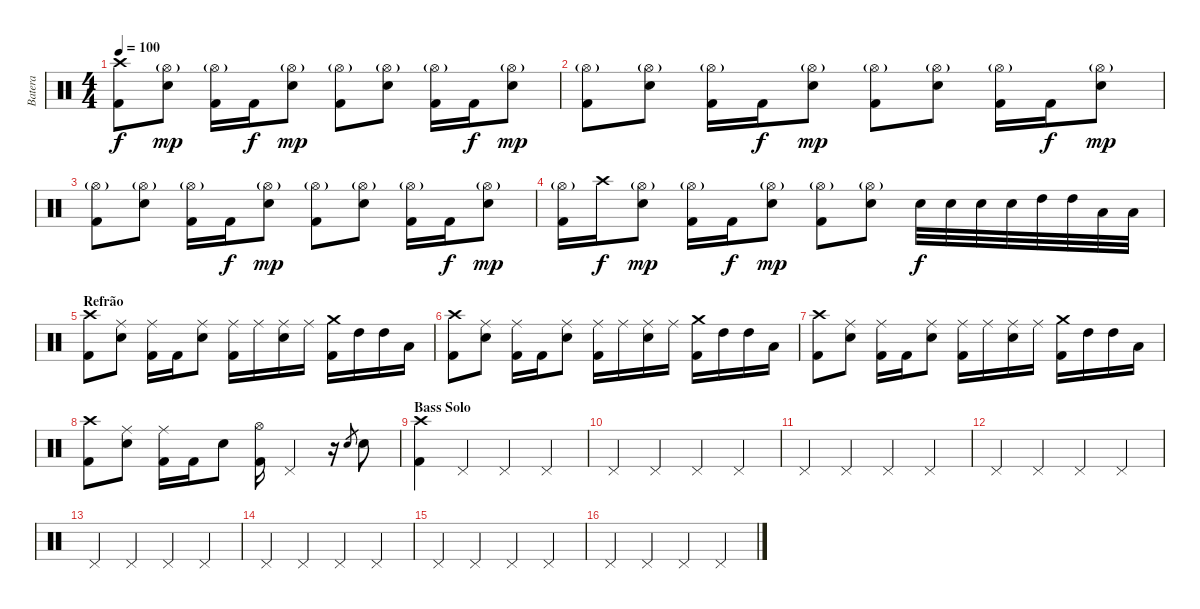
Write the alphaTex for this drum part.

\track ("Batera" "Batera") {instrument percussion}
\staff {score}
\articulation defaults
\ts (4 4)
\tempo 100
\clef neutral
\ks c
("Crash high (hit)" "Kick (hit) 2").8{dy f} ("Hi-Hat (open)"{g} "Electric Snare (hit)").8{dy mp} ("Hi-Hat (open)"{g} "Kick (hit) 2").16 "Kick (hit) 2".16{dy f} ("Hi-Hat (open)"{g} "Electric Snare (hit)").8{dy mp} ("Hi-Hat (open)"{g} "Kick (hit) 2").8 ("Hi-Hat (open)"{g} "Electric Snare (hit)").8 ("Hi-Hat (open)"{g} "Kick (hit) 2").16 "Kick (hit) 2".16{dy f} ("Hi-Hat (open)"{g} "Electric Snare (hit)").8{dy mp} |
("Hi-Hat (open)"{g} "Kick (hit) 2").8 ("Hi-Hat (open)"{g} "Electric Snare (hit)").8 ("Hi-Hat (open)"{g} "Kick (hit) 2").16 "Kick (hit) 2".16{dy f} ("Hi-Hat (open)"{g} "Electric Snare (hit)").8{dy mp} ("Hi-Hat (open)"{g} "Kick (hit) 2").8 ("Hi-Hat (open)"{g} "Electric Snare (hit)").8 ("Hi-Hat (open)"{g} "Kick (hit) 2").16 "Kick (hit) 2".16{dy f} ("Hi-Hat (open)"{g} "Electric Snare (hit)").8{dy mp} |
("Hi-Hat (open)"{g} "Kick (hit) 2").8 ("Hi-Hat (open)"{g} "Electric Snare (hit)").8 ("Hi-Hat (open)"{g} "Kick (hit) 2").16 "Kick (hit) 2".16{dy f} ("Hi-Hat (open)"{g} "Electric Snare (hit)").8{dy mp} ("Hi-Hat (open)"{g} "Kick (hit) 2").8 ("Hi-Hat (open)"{g} "Electric Snare (hit)").8 ("Hi-Hat (open)"{g} "Kick (hit) 2").16 "Kick (hit) 2".16{dy f} ("Hi-Hat (open)"{g} "Electric Snare (hit)").8{dy mp} |
("Hi-Hat (open)"{g} "Kick (hit) 2").16 "Crash high (hit)".16{dy f} ("Hi-Hat (open)"{g} "Electric Snare (hit)").8{dy mp} ("Hi-Hat (open)"{g} "Kick (hit) 2").16 "Kick (hit) 2".16{dy f} ("Hi-Hat (open)"{g} "Electric Snare (hit)").8{dy mp} ("Hi-Hat (open)"{g} "Kick (hit) 2").8 ("Hi-Hat (open)"{g} "Electric Snare (hit)").8 "Electric Snare (hit)".32{dy f} "Electric Snare (hit)".32 "Electric Snare (hit)".32 "Electric Snare (hit)".32 "High Tom (hit)".32 "High Tom (hit)".32 "Low Tom (hit)".32 "Low Tom (hit)".32 |
\section ("" "Refrão")
("Crash high (hit)" "Kick (hit) 2").8 ("Ride (middle)" "Electric Snare (hit)").8 ("Ride (middle)" "Kick (hit) 2").16 "Kick (hit) 2".16 ("Ride (middle)" "Electric Snare (hit)").8 ("Ride (middle)" "Kick (hit) 2").16 "Ride (middle)".16 ("Ride (middle)" "Electric Snare (hit)").16 "Ride (middle)".16 ("Crash medium (hit)" "Kick (hit) 2").16 "High Tom (hit)".16 "High Tom (hit)".16 "Low Tom (hit)".16 |
("Crash high (hit)" "Kick (hit) 2").8 ("Ride (middle)" "Electric Snare (hit)").8 ("Ride (middle)" "Kick (hit) 2").16 "Kick (hit) 2".16 ("Ride (middle)" "Electric Snare (hit)").8 ("Ride (middle)" "Kick (hit) 2").16 "Ride (middle)".16 ("Ride (middle)" "Electric Snare (hit)").16 "Ride (middle)".16 ("Crash medium (hit)" "Kick (hit) 2").16 "High Tom (hit)".16 "High Tom (hit)".16 "Low Tom (hit)".16 |
("Crash high (hit)" "Kick (hit) 2").8 ("Ride (middle)" "Electric Snare (hit)").8 ("Ride (middle)" "Kick (hit) 2").16 "Kick (hit) 2".16 ("Ride (middle)" "Electric Snare (hit)").8 ("Ride (middle)" "Kick (hit) 2").16 "Ride (middle)".16 ("Ride (middle)" "Electric Snare (hit)").16 "Ride (middle)".16 ("Crash medium (hit)" "Kick (hit) 2").16 "High Tom (hit)".16 "High Tom (hit)".16 "Low Tom (hit)".16 |
("Crash high (hit)" "Kick (hit) 2").8 ("Ride (middle)" "Electric Snare (hit)").8 ("Ride (middle)" "Kick (hit) 2").16 "Kick (hit) 2".16 "Electric Snare (hit)".8 ("Hi-Hat (open)" "Kick (hit) 2").16 "Pedal Hi-Hat (hit)".4 r.16 "Electric Snare (hit)".8{gr} "Electric Snare (hit)".8 |
\section ("" "Bass Solo")
("Crash high (hit)" "Kick (hit) 2").4 "Pedal Hi-Hat (hit)".4 "Pedal Hi-Hat (hit)".4 "Pedal Hi-Hat (hit)".4 |
"Pedal Hi-Hat (hit)".4 "Pedal Hi-Hat (hit)".4 "Pedal Hi-Hat (hit)".4 "Pedal Hi-Hat (hit)".4 |
"Pedal Hi-Hat (hit)".4 "Pedal Hi-Hat (hit)".4 "Pedal Hi-Hat (hit)".4 "Pedal Hi-Hat (hit)".4 |
"Pedal Hi-Hat (hit)".4 "Pedal Hi-Hat (hit)".4 "Pedal Hi-Hat (hit)".4 "Pedal Hi-Hat (hit)".4 |
"Pedal Hi-Hat (hit)".4 "Pedal Hi-Hat (hit)".4 "Pedal Hi-Hat (hit)".4 "Pedal Hi-Hat (hit)".4 |
"Pedal Hi-Hat (hit)".4 "Pedal Hi-Hat (hit)".4 "Pedal Hi-Hat (hit)".4 "Pedal Hi-Hat (hit)".4 |
"Pedal Hi-Hat (hit)".4 "Pedal Hi-Hat (hit)".4 "Pedal Hi-Hat (hit)".4 "Pedal Hi-Hat (hit)".4 |
"Pedal Hi-Hat (hit)".4 "Pedal Hi-Hat (hit)".4 "Pedal Hi-Hat (hit)".4 "Pedal Hi-Hat (hit)".4
